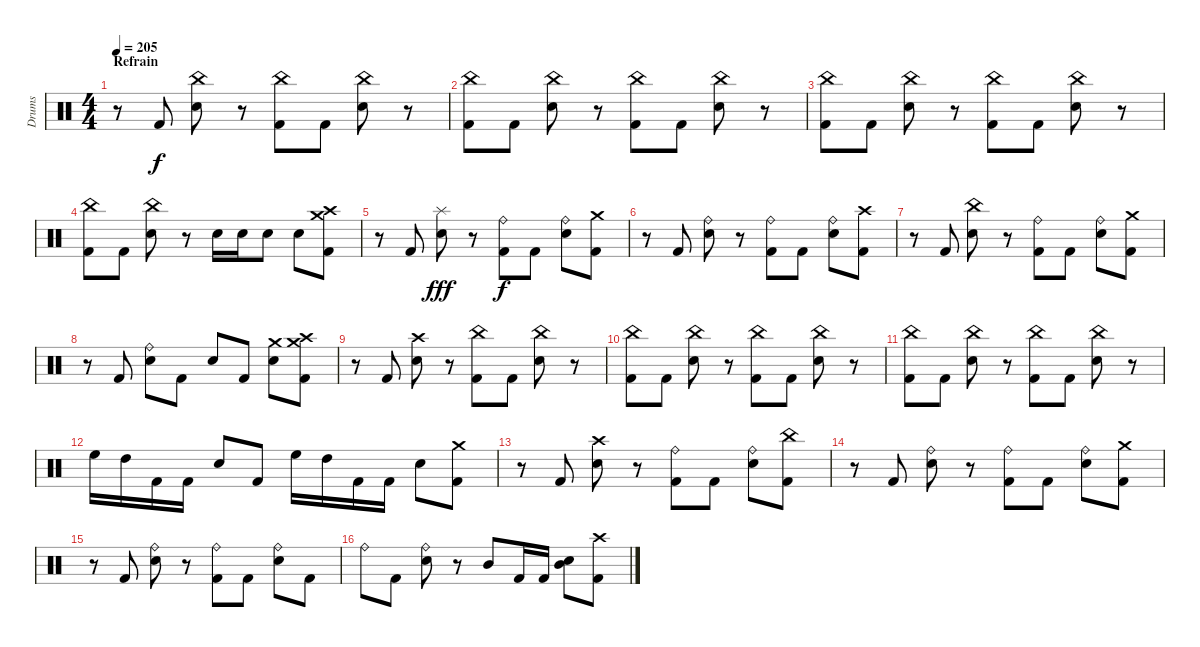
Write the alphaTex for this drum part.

\track ("Drums" "Drums") {instrument percussion}
\staff {score}
\articulation defaults
\ts (4 4)
\section ("" "Refrain")
\tempo 205
\clef neutral
\ks c
r.8{dy f} "Kick (hit) 2".8 ("China (hit)" "Electric Snare (hit)").8 r.8 ("China (hit)" "Kick (hit) 2").8 "Kick (hit) 2".8 ("China (hit)" "Electric Snare (hit)").8 r.8 |
("China (hit)" "Kick (hit) 2").8 "Kick (hit) 2".8 ("China (hit)" "Electric Snare (hit)").8 r.8 ("China (hit)" "Kick (hit) 2").8 "Kick (hit) 2".8 ("China (hit)" "Electric Snare (hit)").8 r.8 |
("China (hit)" "Kick (hit) 2").8 "Kick (hit) 2".8 ("China (hit)" "Electric Snare (hit)").8 r.8 ("China (hit)" "Kick (hit) 2").8 "Kick (hit) 2".8 ("China (hit)" "Electric Snare (hit)").8 r.8 |
("China (hit)" "Kick (hit) 2").8 "Kick (hit) 2".8 ("China (hit)" "Electric Snare (hit)").8 r.8 "Electric Snare (hit)".16 "Electric Snare (hit)".16 "Electric Snare (hit)".8 "Electric Snare (hit)".8 ("Crash medium (hit)" "Crash high (hit)" "Kick (hit) 2").8 |
r.8 "Kick (hit) 2".8 ("Splash (hit)" "Electric Snare (hit)").8{dy fff} r.8 ("Ride (bell)" "Kick (hit) 2").8{dy f} "Kick (hit) 2".8 ("Ride (bell)" "Electric Snare (hit)").8 ("Crash medium (hit)" "Kick (hit) 2").8 |
r.8 "Kick (hit) 2".8 ("Ride (bell)" "Electric Snare (hit)").8 r.8 ("Ride (bell)" "Kick (hit) 2").8 "Kick (hit) 2".8 ("Ride (bell)" "Electric Snare (hit)").8 ("Crash high (hit)" "Kick (hit) 2").8 |
r.8 "Kick (hit) 2".8 ("China (hit)" "Electric Snare (hit)").8 r.8 ("Ride (bell)" "Kick (hit) 2").8 "Kick (hit) 2".8 ("Ride (bell)" "Electric Snare (hit)").8 ("Crash medium (hit)" "Kick (hit) 2").8 |
r.8 "Kick (hit) 2".8 ("Ride (bell)" "Electric Snare (hit)").8 "Kick (hit) 2".8 "Electric Snare (hit)".8 "Kick (hit) 2".8 ("Crash medium (hit)" "Electric Snare (hit)").8 ("Crash medium (hit)" "Crash high (hit)" "Kick (hit) 2").8 |
r.8 "Kick (hit) 2".8 ("Crash high (hit)" "Electric Snare (hit)").8 r.8 ("China (hit)" "Kick (hit) 2").8 "Kick (hit) 2".8 ("China (hit)" "Electric Snare (hit)").8 r.8 |
("China (hit)" "Kick (hit) 2").8 "Kick (hit) 2".8 ("China (hit)" "Electric Snare (hit)").8 r.8 ("China (hit)" "Kick (hit) 2").8 "Kick (hit) 2".8 ("China (hit)" "Electric Snare (hit)").8 r.8 |
("China (hit)" "Kick (hit) 2").8 "Kick (hit) 2".8 ("China (hit)" "Electric Snare (hit)").8 r.8 ("China (hit)" "Kick (hit) 2").8 "Kick (hit) 2".8 ("China (hit)" "Electric Snare (hit)").8 r.8 |
"High Floor Tom (hit)".16 "High Tom (hit)".16 "Kick (hit) 2".16 "Kick (hit) 2".16 "Electric Snare (hit)".8 "Kick (hit) 2".8 "High Floor Tom (hit)".16 "High Tom (hit)".16 "Kick (hit) 2".16 "Kick (hit) 2".16 "Electric Snare (hit)".8 ("Crash medium (hit)" "Kick (hit) 2").8 |
r.8 "Kick (hit) 2".8 ("Crash high (hit)" "Electric Snare (hit)").8 r.8 ("Ride (bell)" "Kick (hit) 2").8 "Kick (hit) 2".8 ("Ride (bell)" "Electric Snare (hit)").8 ("China (hit)" "Kick (hit) 2").8 |
r.8 "Kick (hit) 2".8 ("Ride (bell)" "Electric Snare (hit)").8 r.8 ("Ride (bell)" "Kick (hit) 2").8 "Kick (hit) 2".8 ("Ride (bell)" "Electric Snare (hit)").8 ("Crash medium (hit)" "Kick (hit) 2").8 |
r.8 "Kick (hit) 2".8 ("Ride (bell)" "Electric Snare (hit)").8 r.8 ("Ride (bell)" "Kick (hit) 2").8 "Kick (hit) 2".8 ("Ride (bell)" "Electric Snare (hit)").8 "Kick (hit) 2".8 |
"Ride (bell)".8 "Kick (hit) 2".8 ("Ride (bell)" "Electric Snare (hit)").8 r.8 "Mid Tom (hit)".8 "Kick (hit) 2".16 "Kick (hit) 2".16 ("Mid Tom (hit)" "Electric Snare (hit)").8 ("Crash high (hit)" "Kick (hit) 2").8
